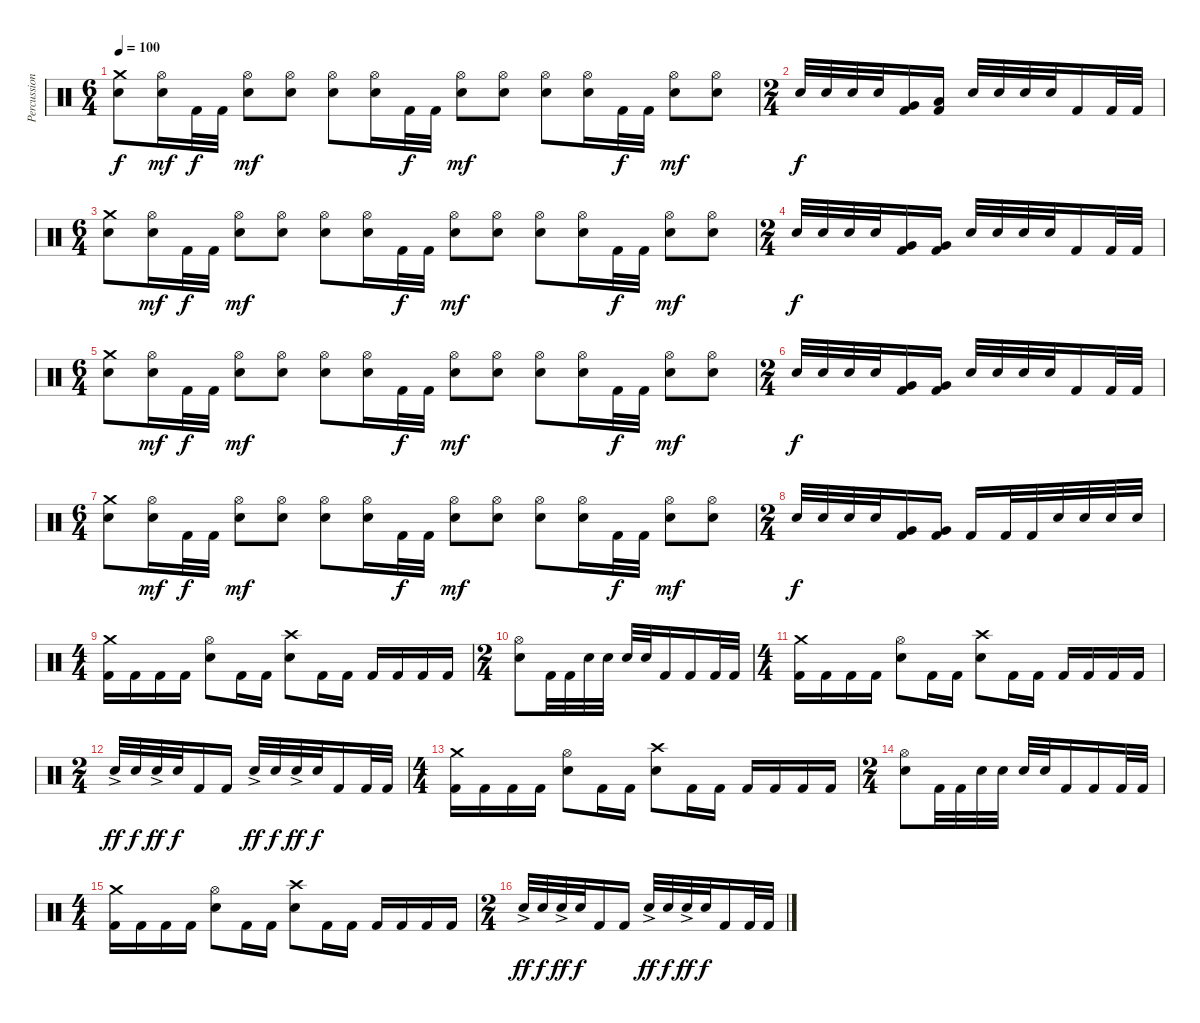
\track ("Percussion" "Percussion") {instrument percussion}
\staff {score}
\articulation defaults
\ts (6 4)
\tempo 100
\clef neutral
\ks c
("Crash medium (hit)" "Electric Snare (hit)").8{dy f} ("Hi-Hat (open)" "Electric Snare (hit)").16{dy mf} "Kick (hit) 2".32{dy f} "Kick (hit) 2".32 ("Hi-Hat (open)" "Electric Snare (hit)").8{dy mf} ("Hi-Hat (open)" "Electric Snare (hit)").8 ("Hi-Hat (open)" "Electric Snare (hit)").8 ("Hi-Hat (open)" "Electric Snare (hit)").16 "Kick (hit) 2".32{dy f} "Kick (hit) 2".32 ("Hi-Hat (open)" "Electric Snare (hit)").8{dy mf} ("Hi-Hat (open)" "Electric Snare (hit)").8 ("Hi-Hat (open)" "Electric Snare (hit)").8 ("Hi-Hat (open)" "Electric Snare (hit)").16 "Kick (hit) 2".32{dy f} "Kick (hit) 2".32 ("Hi-Hat (open)" "Electric Snare (hit)").8{dy mf} ("Hi-Hat (open)" "Electric Snare (hit)").8 |
\ts (2 4)
"Electric Snare (hit)".32{dy f} "Electric Snare (hit)".32 "Electric Snare (hit)".32 "Electric Snare (hit)".32 ("Very Low Tom (hit)" "Kick (hit) 2").16 ("Low Floor Tom (hit)" "Kick (hit) 2").16 "Electric Snare (hit)".32 "Electric Snare (hit)".32 "Electric Snare (hit)".32 "Electric Snare (hit)".32 "Kick (hit) 2".16 "Kick (hit) 2".32 "Kick (hit) 2".32 |
\ts (6 4)
("Crash medium (hit)" "Electric Snare (hit)").8 ("Hi-Hat (open)" "Electric Snare (hit)").16{dy mf} "Kick (hit) 2".32{dy f} "Kick (hit) 2".32 ("Hi-Hat (open)" "Electric Snare (hit)").8{dy mf} ("Hi-Hat (open)" "Electric Snare (hit)").8 ("Hi-Hat (open)" "Electric Snare (hit)").8 ("Hi-Hat (open)" "Electric Snare (hit)").16 "Kick (hit) 2".32{dy f} "Kick (hit) 2".32 ("Hi-Hat (open)" "Electric Snare (hit)").8{dy mf} ("Hi-Hat (open)" "Electric Snare (hit)").8 ("Hi-Hat (open)" "Electric Snare (hit)").8 ("Hi-Hat (open)" "Electric Snare (hit)").16 "Kick (hit) 2".32{dy f} "Kick (hit) 2".32 ("Hi-Hat (open)" "Electric Snare (hit)").8{dy mf} ("Hi-Hat (open)" "Electric Snare (hit)").8 |
\ts (2 4)
"Electric Snare (hit)".32{dy f} "Electric Snare (hit)".32 "Electric Snare (hit)".32 "Electric Snare (hit)".32 ("Very Low Tom (hit)" "Kick (hit) 2").16 ("Very Low Tom (hit)" "Kick (hit) 2").16 "Electric Snare (hit)".32 "Electric Snare (hit)".32 "Electric Snare (hit)".32 "Electric Snare (hit)".32 "Kick (hit) 2".16 "Kick (hit) 2".32 "Kick (hit) 2".32 |
\ts (6 4)
("Crash medium (hit)" "Electric Snare (hit)").8 ("Hi-Hat (open)" "Electric Snare (hit)").16{dy mf} "Kick (hit) 2".32{dy f} "Kick (hit) 2".32 ("Hi-Hat (open)" "Electric Snare (hit)").8{dy mf} ("Hi-Hat (open)" "Electric Snare (hit)").8 ("Hi-Hat (open)" "Electric Snare (hit)").8 ("Hi-Hat (open)" "Electric Snare (hit)").16 "Kick (hit) 2".32{dy f} "Kick (hit) 2".32 ("Hi-Hat (open)" "Electric Snare (hit)").8{dy mf} ("Hi-Hat (open)" "Electric Snare (hit)").8 ("Hi-Hat (open)" "Electric Snare (hit)").8 ("Hi-Hat (open)" "Electric Snare (hit)").16 "Kick (hit) 2".32{dy f} "Kick (hit) 2".32 ("Hi-Hat (open)" "Electric Snare (hit)").8{dy mf} ("Hi-Hat (open)" "Electric Snare (hit)").8 |
\ts (2 4)
"Electric Snare (hit)".32{dy f} "Electric Snare (hit)".32 "Electric Snare (hit)".32 "Electric Snare (hit)".32 ("Very Low Tom (hit)" "Kick (hit) 2").16 ("Very Low Tom (hit)" "Kick (hit) 2").16 "Electric Snare (hit)".32 "Electric Snare (hit)".32 "Electric Snare (hit)".32 "Electric Snare (hit)".32 "Kick (hit) 2".16 "Kick (hit) 2".32 "Kick (hit) 2".32 |
\ts (6 4)
("Crash medium (hit)" "Electric Snare (hit)").8 ("Hi-Hat (open)" "Electric Snare (hit)").16{dy mf} "Kick (hit) 2".32{dy f} "Kick (hit) 2".32 ("Hi-Hat (open)" "Electric Snare (hit)").8{dy mf} ("Hi-Hat (open)" "Electric Snare (hit)").8 ("Hi-Hat (open)" "Electric Snare (hit)").8 ("Hi-Hat (open)" "Electric Snare (hit)").16 "Kick (hit) 2".32{dy f} "Kick (hit) 2".32 ("Hi-Hat (open)" "Electric Snare (hit)").8{dy mf} ("Hi-Hat (open)" "Electric Snare (hit)").8 ("Hi-Hat (open)" "Electric Snare (hit)").8 ("Hi-Hat (open)" "Electric Snare (hit)").16 "Kick (hit) 2".32{dy f} "Kick (hit) 2".32 ("Hi-Hat (open)" "Electric Snare (hit)").8{dy mf} ("Hi-Hat (open)" "Electric Snare (hit)").8 |
\ts (2 4)
"Electric Snare (hit)".32{dy f} "Electric Snare (hit)".32 "Electric Snare (hit)".32 "Electric Snare (hit)".32 ("Very Low Tom (hit)" "Kick (hit) 2").16 ("Very Low Tom (hit)" "Kick (hit) 2").16 "Kick (hit) 2".16 "Kick (hit) 2".32 "Kick (hit) 2".32 "Electric Snare (hit)".32 "Electric Snare (hit)".32 "Electric Snare (hit)".32 "Electric Snare (hit)".32 |
\ts (4 4)
("Crash medium (hit)" "Kick (hit) 2").16 "Kick (hit) 2".16 "Kick (hit) 2".16 "Kick (hit) 2".16 ("Hi-Hat (open)" "Electric Snare (hit)").8 "Kick (hit) 2".16 "Kick (hit) 2".16 ("Crash high (hit)" "Electric Snare (hit)").8 "Kick (hit) 2".16 "Kick (hit) 2".16 "Kick (hit) 2".16 "Kick (hit) 2".16 "Kick (hit) 2".16 "Kick (hit) 2".16 |
\ts (2 4)
("Hi-Hat (open)" "Electric Snare (hit)").8 "Kick (hit) 2".32 "Kick (hit) 2".32 "Electric Snare (hit)".32 "Electric Snare (hit)".32 "Electric Snare (hit)".32 "Electric Snare (hit)".32 "Kick (hit) 2".16 "Kick (hit) 2".16 "Kick (hit) 2".32 "Kick (hit) 2".32 |
\ts (4 4)
("Crash medium (hit)" "Kick (hit) 2").16 "Kick (hit) 2".16 "Kick (hit) 2".16 "Kick (hit) 2".16 ("Hi-Hat (open)" "Electric Snare (hit)").8 "Kick (hit) 2".16 "Kick (hit) 2".16 ("Crash high (hit)" "Electric Snare (hit)").8 "Kick (hit) 2".16 "Kick (hit) 2".16 "Kick (hit) 2".16 "Kick (hit) 2".16 "Kick (hit) 2".16 "Kick (hit) 2".16 |
\ts (2 4)
"Electric Snare (hit)"{ac}.32{dy ff} "Electric Snare (hit)".32{dy f} "Electric Snare (hit)"{ac}.32{dy ff} "Electric Snare (hit)".32{dy f} "Kick (hit) 2".16 "Kick (hit) 2".16 "Electric Snare (hit)"{ac}.32{dy ff} "Electric Snare (hit)".32{dy f} "Electric Snare (hit)"{ac}.32{dy ff} "Electric Snare (hit)".32{dy f} "Kick (hit) 2".16 "Kick (hit) 2".32 "Kick (hit) 2".32 |
\ts (4 4)
("Crash medium (hit)" "Kick (hit) 2").16 "Kick (hit) 2".16 "Kick (hit) 2".16 "Kick (hit) 2".16 ("Hi-Hat (open)" "Electric Snare (hit)").8 "Kick (hit) 2".16 "Kick (hit) 2".16 ("Crash high (hit)" "Electric Snare (hit)").8 "Kick (hit) 2".16 "Kick (hit) 2".16 "Kick (hit) 2".16 "Kick (hit) 2".16 "Kick (hit) 2".16 "Kick (hit) 2".16 |
\ts (2 4)
("Hi-Hat (open)" "Electric Snare (hit)").8 "Kick (hit) 2".32 "Kick (hit) 2".32 "Electric Snare (hit)".32 "Electric Snare (hit)".32 "Electric Snare (hit)".32 "Electric Snare (hit)".32 "Kick (hit) 2".16 "Kick (hit) 2".16 "Kick (hit) 2".32 "Kick (hit) 2".32 |
\ts (4 4)
("Crash medium (hit)" "Kick (hit) 2").16 "Kick (hit) 2".16 "Kick (hit) 2".16 "Kick (hit) 2".16 ("Hi-Hat (open)" "Electric Snare (hit)").8 "Kick (hit) 2".16 "Kick (hit) 2".16 ("Crash high (hit)" "Electric Snare (hit)").8 "Kick (hit) 2".16 "Kick (hit) 2".16 "Kick (hit) 2".16 "Kick (hit) 2".16 "Kick (hit) 2".16 "Kick (hit) 2".16 |
\ts (2 4)
"Electric Snare (hit)"{ac}.32{dy ff} "Electric Snare (hit)".32{dy f} "Electric Snare (hit)"{ac}.32{dy ff} "Electric Snare (hit)".32{dy f} "Kick (hit) 2".16 "Kick (hit) 2".16 "Electric Snare (hit)"{ac}.32{dy ff} "Electric Snare (hit)".32{dy f} "Electric Snare (hit)"{ac}.32{dy ff} "Electric Snare (hit)".32{dy f} "Kick (hit) 2".16 "Kick (hit) 2".32 "Kick (hit) 2".32
